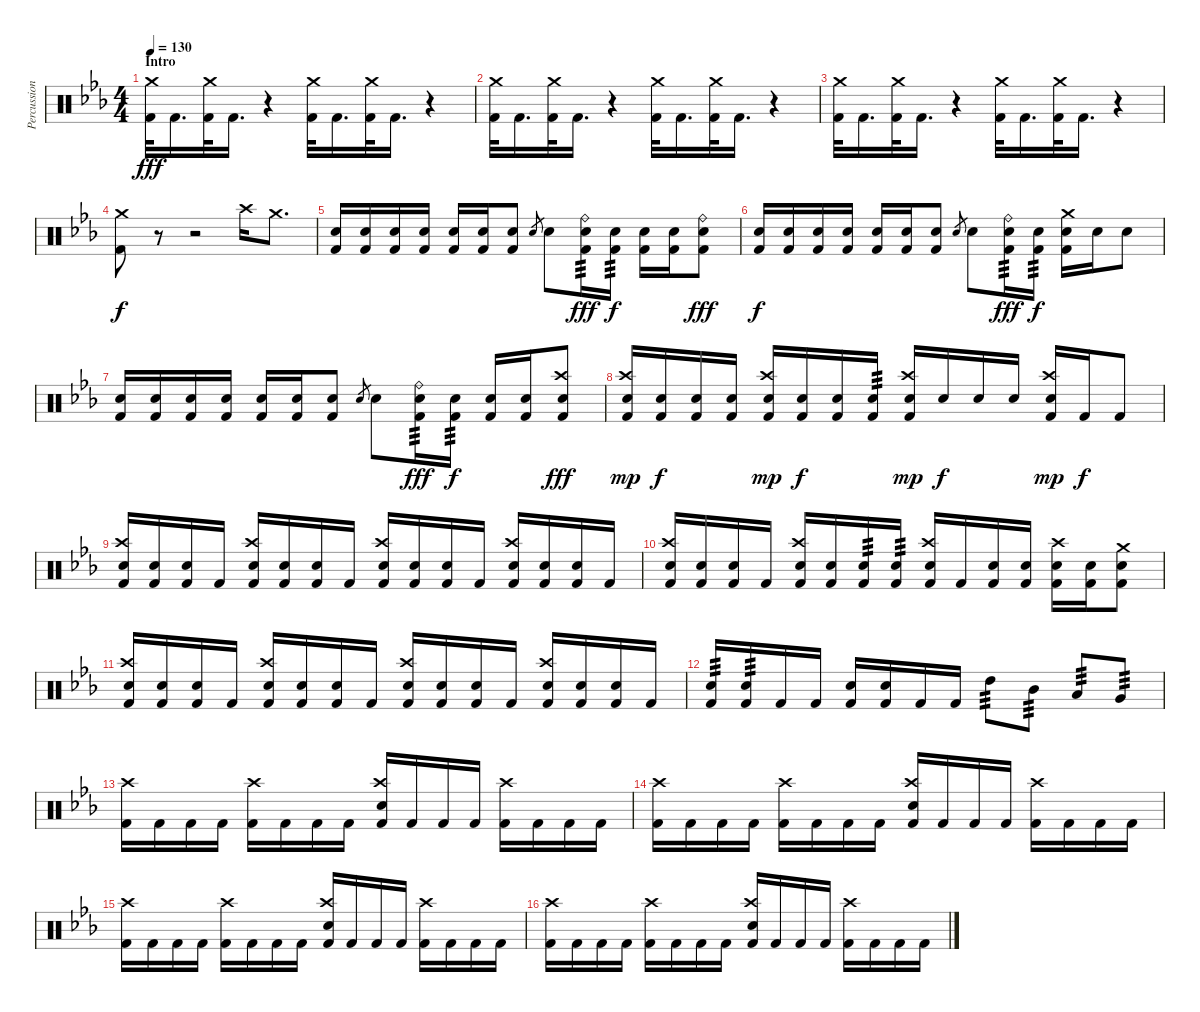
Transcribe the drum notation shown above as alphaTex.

\track ("Percussion" "Percussion") {instrument percussion}
\staff {score}
\articulation defaults
\ts (4 4)
\section ("" "Intro")
\tempo 130
\clef neutral
\ks eb
("Crash medium (hit)" "Kick (hit) 2").32{dy fff} "Kick (hit) 2".16{d} ("Crash medium (hit)" "Kick (hit) 2").32 "Kick (hit) 2".16{d} r.4 ("Crash medium (hit)" "Kick (hit) 2").32 "Kick (hit) 2".16{d} ("Crash medium (hit)" "Kick (hit) 2").32 "Kick (hit) 2".16{d} r.4 |
("Crash medium (hit)" "Kick (hit) 2").32 "Kick (hit) 2".16{d} ("Crash medium (hit)" "Kick (hit) 2").32 "Kick (hit) 2".16{d} r.4 ("Crash medium (hit)" "Kick (hit) 2").32 "Kick (hit) 2".16{d} ("Crash medium (hit)" "Kick (hit) 2").32 "Kick (hit) 2".16{d} r.4 |
("Crash medium (hit)" "Kick (hit) 2").32 "Kick (hit) 2".16{d} ("Crash medium (hit)" "Kick (hit) 2").32 "Kick (hit) 2".16{d} r.4 ("Crash medium (hit)" "Kick (hit) 2").32 "Kick (hit) 2".16{d} ("Crash medium (hit)" "Kick (hit) 2").32 "Kick (hit) 2".16{d} r.4 |
("Crash medium (hit)" "Kick (hit) 2").8{dy f} r.8 r.2 "Crash high (hit)".16 "Crash medium (hit)".8{d} |
("Electric Snare (hit)" "Kick (hit) 2").16 ("Electric Snare (hit)" "Kick (hit) 2").16 ("Electric Snare (hit)" "Kick (hit) 2").16 ("Electric Snare (hit)" "Kick (hit) 2").16 ("Electric Snare (hit)" "Kick (hit) 2").16 ("Electric Snare (hit)" "Kick (hit) 2").16 ("Electric Snare (hit)" "Kick (hit) 2").8 "Electric Snare (hit)".8{gr} "Electric Snare (hit)".8 ("Ride (bell)" "Electric Snare (hit)" "Kick (hit) 2").16{tp 3 dy fff} ("Electric Snare (hit)" "Kick (hit) 2").16{tp 3 dy f} ("Electric Snare (hit)" "Kick (hit) 2").16 ("Electric Snare (hit)" "Kick (hit) 2").16 ("Ride (bell)" "Electric Snare (hit)" "Kick (hit) 2").8{dy fff} |
("Electric Snare (hit)" "Kick (hit) 2").16{dy f} ("Electric Snare (hit)" "Kick (hit) 2").16 ("Electric Snare (hit)" "Kick (hit) 2").16 ("Electric Snare (hit)" "Kick (hit) 2").16 ("Electric Snare (hit)" "Kick (hit) 2").16 ("Electric Snare (hit)" "Kick (hit) 2").16 ("Electric Snare (hit)" "Kick (hit) 2").8 "Electric Snare (hit)".8{gr} "Electric Snare (hit)".8 ("Ride (bell)" "Electric Snare (hit)" "Kick (hit) 2").16{tp 3 dy fff} ("Electric Snare (hit)" "Kick (hit) 2").16{tp 3 dy f} ("Crash medium (hit)" "Electric Snare (hit)" "Kick (hit) 2").16 "Electric Snare (hit)".16 "Electric Snare (hit)".8 |
("Electric Snare (hit)" "Kick (hit) 2").16 ("Electric Snare (hit)" "Kick (hit) 2").16 ("Electric Snare (hit)" "Kick (hit) 2").16 ("Electric Snare (hit)" "Kick (hit) 2").16 ("Electric Snare (hit)" "Kick (hit) 2").16 ("Electric Snare (hit)" "Kick (hit) 2").16 ("Electric Snare (hit)" "Kick (hit) 2").8 "Electric Snare (hit)".8{gr} "Electric Snare (hit)".8 ("Ride (bell)" "Electric Snare (hit)" "Kick (hit) 2").16{tp 3 dy fff} ("Electric Snare (hit)" "Kick (hit) 2").16{tp 3 dy f} ("Electric Snare (hit)" "Kick (hit) 2").16 ("Electric Snare (hit)" "Kick (hit) 2").16 ("Crash high (hit)" "Electric Snare (hit)" "Kick (hit) 2").8{dy fff} |
("Crash high (hit)" "Electric Snare (hit)" "Kick (hit) 2").16{dy mp} ("Electric Snare (hit)" "Kick (hit) 2").16{dy f} ("Electric Snare (hit)" "Kick (hit) 2").16 ("Electric Snare (hit)" "Kick (hit) 2").16 ("Crash high (hit)" "Electric Snare (hit)" "Kick (hit) 2").16{dy mp} ("Electric Snare (hit)" "Kick (hit) 2").16{dy f} ("Electric Snare (hit)" "Kick (hit) 2").16 ("Electric Snare (hit)" "Kick (hit) 2").16{tp 3} ("Crash high (hit)" "Electric Snare (hit)" "Kick (hit) 2").16{dy mp} "Electric Snare (hit)".16{dy f} "Electric Snare (hit)".16 "Electric Snare (hit)".16 ("Crash high (hit)" "Electric Snare (hit)" "Kick (hit) 2").16{dy mp} "Kick (hit) 2".16{dy f} "Kick (hit) 2".8 |
("Crash high (hit)" "Electric Snare (hit)" "Kick (hit) 2").16 ("Electric Snare (hit)" "Kick (hit) 2").16 ("Electric Snare (hit)" "Kick (hit) 2").16 "Kick (hit) 2".16 ("Crash high (hit)" "Electric Snare (hit)" "Kick (hit) 2").16 ("Electric Snare (hit)" "Kick (hit) 2").16 ("Electric Snare (hit)" "Kick (hit) 2").16 "Kick (hit) 2".16 ("Crash high (hit)" "Electric Snare (hit)" "Kick (hit) 2").16 ("Electric Snare (hit)" "Kick (hit) 2").16 ("Electric Snare (hit)" "Kick (hit) 2").16 "Kick (hit) 2".16 ("Crash high (hit)" "Electric Snare (hit)" "Kick (hit) 2").16 ("Electric Snare (hit)" "Kick (hit) 2").16 ("Electric Snare (hit)" "Kick (hit) 2").16 "Kick (hit) 2".16 |
("Crash high (hit)" "Electric Snare (hit)" "Kick (hit) 2").16 ("Electric Snare (hit)" "Kick (hit) 2").16 ("Electric Snare (hit)" "Kick (hit) 2").16 "Kick (hit) 2".16 ("Crash high (hit)" "Electric Snare (hit)" "Kick (hit) 2").16 ("Electric Snare (hit)" "Kick (hit) 2").16 ("Electric Snare (hit)" "Kick (hit) 2").16{tp 3} ("Electric Snare (hit)" "Kick (hit) 2").16{tp 3} ("Crash high (hit)" "Electric Snare (hit)" "Kick (hit) 2").16 "Kick (hit) 2".16 ("Electric Snare (hit)" "Kick (hit) 2").16 ("Electric Snare (hit)" "Kick (hit) 2").16 ("Crash high (hit)" "Electric Snare (hit)" "Kick (hit) 2").16 ("Electric Snare (hit)" "Kick (hit) 2").16 ("Crash medium (hit)" "Electric Snare (hit)" "Kick (hit) 2").8 |
("Crash high (hit)" "Electric Snare (hit)" "Kick (hit) 2").16 ("Electric Snare (hit)" "Kick (hit) 2").16 ("Electric Snare (hit)" "Kick (hit) 2").16 "Kick (hit) 2".16 ("Crash high (hit)" "Electric Snare (hit)" "Kick (hit) 2").16 ("Electric Snare (hit)" "Kick (hit) 2").16 ("Electric Snare (hit)" "Kick (hit) 2").16 "Kick (hit) 2".16 ("Crash high (hit)" "Electric Snare (hit)" "Kick (hit) 2").16 ("Electric Snare (hit)" "Kick (hit) 2").16 ("Electric Snare (hit)" "Kick (hit) 2").16 "Kick (hit) 2".16 ("Crash high (hit)" "Electric Snare (hit)" "Kick (hit) 2").16 ("Electric Snare (hit)" "Kick (hit) 2").16 ("Electric Snare (hit)" "Kick (hit) 2").16 "Kick (hit) 2".16 |
("Electric Snare (hit)" "Kick (hit) 2").16{tp 3} ("Electric Snare (hit)" "Kick (hit) 2").16{tp 3} "Kick (hit) 2".16 "Kick (hit) 2".16 ("Electric Snare (hit)" "Kick (hit) 2").16 ("Electric Snare (hit)" "Kick (hit) 2").16 "Kick (hit) 2".16 "Kick (hit) 2".16 "High Tom (hit)".8{tp 3} "Mid Tom (hit)".8{tp 3} "Low Tom (hit)".8{tp 3} "Very Low Tom (hit)".8{tp 3} |
("Crash high (hit)" "Kick (hit) 2").16 "Kick (hit) 2".16 "Kick (hit) 2".16 "Kick (hit) 2".16 ("Crash high (hit)" "Kick (hit) 2").16 "Kick (hit) 2".16 "Kick (hit) 2".16 "Kick (hit) 2".16 ("Crash high (hit)" "Electric Snare (hit)" "Kick (hit) 2").16 "Kick (hit) 2".16 "Kick (hit) 2".16 "Kick (hit) 2".16 ("Crash high (hit)" "Kick (hit) 2").16 "Kick (hit) 2".16 "Kick (hit) 2".16 "Kick (hit) 2".16 |
("Crash high (hit)" "Kick (hit) 2").16 "Kick (hit) 2".16 "Kick (hit) 2".16 "Kick (hit) 2".16 ("Crash high (hit)" "Kick (hit) 2").16 "Kick (hit) 2".16 "Kick (hit) 2".16 "Kick (hit) 2".16 ("Crash high (hit)" "Electric Snare (hit)" "Kick (hit) 2").16 "Kick (hit) 2".16 "Kick (hit) 2".16 "Kick (hit) 2".16 ("Crash high (hit)" "Kick (hit) 2").16 "Kick (hit) 2".16 "Kick (hit) 2".16 "Kick (hit) 2".16 |
("Crash high (hit)" "Kick (hit) 2").16 "Kick (hit) 2".16 "Kick (hit) 2".16 "Kick (hit) 2".16 ("Crash high (hit)" "Kick (hit) 2").16 "Kick (hit) 2".16 "Kick (hit) 2".16 "Kick (hit) 2".16 ("Crash high (hit)" "Electric Snare (hit)" "Kick (hit) 2").16 "Kick (hit) 2".16 "Kick (hit) 2".16 "Kick (hit) 2".16 ("Crash high (hit)" "Kick (hit) 2").16 "Kick (hit) 2".16 "Kick (hit) 2".16 "Kick (hit) 2".16 |
("Crash high (hit)" "Kick (hit) 2").16 "Kick (hit) 2".16 "Kick (hit) 2".16 "Kick (hit) 2".16 ("Crash high (hit)" "Kick (hit) 2").16 "Kick (hit) 2".16 "Kick (hit) 2".16 "Kick (hit) 2".16 ("Crash high (hit)" "Electric Snare (hit)" "Kick (hit) 2").16 "Kick (hit) 2".16 "Kick (hit) 2".16 "Kick (hit) 2".16 ("Crash high (hit)" "Kick (hit) 2").16 "Kick (hit) 2".16 "Kick (hit) 2".16 "Kick (hit) 2".16
